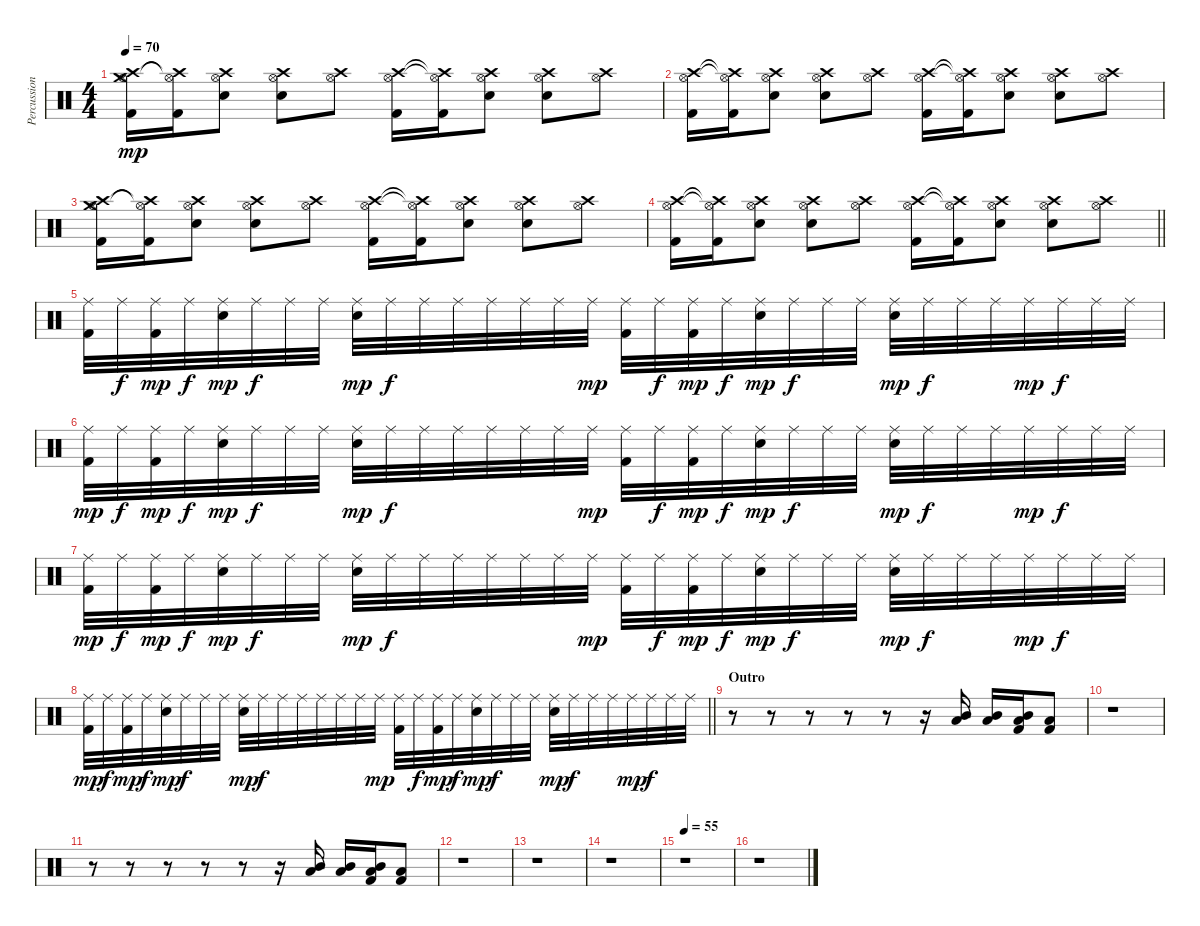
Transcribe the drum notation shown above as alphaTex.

\track ("Percussion" "Percussion") {instrument percussion}
\staff {score}
\articulation defaults
\ts (4 4)
\tempo 70
\clef neutral
\ks c
("Crash medium (hit)" "Crash high (hit)" "Hi-Hat (open)" "Kick (hit) 2").16{dy mp} ("Crash high (hit)"{t} "Hi-Hat (open)"{t} "Kick (hit) 2").16 ("Crash high (hit)" "Hi-Hat (open)" "Electric Snare (hit)").8 ("Crash high (hit)" "Hi-Hat (open)" "Electric Snare (hit)").8 ("Crash high (hit)" "Hi-Hat (open)").8 ("Crash high (hit)" "Hi-Hat (open)" "Kick (hit) 2").16 ("Crash high (hit)"{t} "Hi-Hat (open)"{t} "Kick (hit) 2").16 ("Crash high (hit)" "Hi-Hat (open)" "Electric Snare (hit)").8 ("Crash high (hit)" "Hi-Hat (open)" "Electric Snare (hit)").8 ("Crash high (hit)" "Hi-Hat (open)").8 |
("Crash high (hit)" "Hi-Hat (open)" "Kick (hit) 2").16 ("Crash high (hit)"{t} "Hi-Hat (open)"{t} "Kick (hit) 2").16 ("Crash high (hit)" "Hi-Hat (open)" "Electric Snare (hit)").8 ("Crash high (hit)" "Hi-Hat (open)" "Electric Snare (hit)").8 ("Crash high (hit)" "Hi-Hat (open)").8 ("Crash high (hit)" "Hi-Hat (open)" "Kick (hit) 2").16 ("Crash high (hit)"{t} "Hi-Hat (open)"{t} "Kick (hit) 2").16 ("Crash high (hit)" "Hi-Hat (open)" "Electric Snare (hit)").8 ("Crash high (hit)" "Hi-Hat (open)" "Electric Snare (hit)").8 ("Crash high (hit)" "Hi-Hat (open)").8 |
("Crash medium (hit)" "Crash high (hit)" "Hi-Hat (open)" "Kick (hit) 2").16 ("Crash high (hit)"{t} "Hi-Hat (open)"{t} "Kick (hit) 2").16 ("Crash high (hit)" "Hi-Hat (open)" "Electric Snare (hit)").8 ("Crash high (hit)" "Hi-Hat (open)" "Electric Snare (hit)").8 ("Crash high (hit)" "Hi-Hat (open)").8 ("Crash high (hit)" "Hi-Hat (open)" "Kick (hit) 2").16 ("Crash high (hit)"{t} "Hi-Hat (open)"{t} "Kick (hit) 2").16 ("Crash high (hit)" "Hi-Hat (open)" "Electric Snare (hit)").8 ("Crash high (hit)" "Hi-Hat (open)" "Electric Snare (hit)").8 ("Crash high (hit)" "Hi-Hat (open)").8 |
\barLineRight lightlight
("Crash high (hit)" "Hi-Hat (open)" "Kick (hit) 2").16 ("Crash high (hit)"{t} "Hi-Hat (open)"{t} "Kick (hit) 2").16 ("Crash high (hit)" "Hi-Hat (open)" "Electric Snare (hit)").8 ("Crash high (hit)" "Hi-Hat (open)" "Electric Snare (hit)").8 ("Crash high (hit)" "Hi-Hat (open)").8 ("Crash high (hit)" "Hi-Hat (open)" "Kick (hit) 2").16 ("Crash high (hit)"{t} "Hi-Hat (open)"{t} "Kick (hit) 2").16 ("Crash high (hit)" "Hi-Hat (open)" "Electric Snare (hit)").8 ("Crash high (hit)" "Hi-Hat (open)" "Electric Snare (hit)").8 ("Crash high (hit)" "Hi-Hat (open)").8 |
("Ride (middle)" "Kick (hit) 2").32 "Ride (middle)".32{dy f} ("Ride (middle)" "Kick (hit) 2").32{dy mp} "Ride (middle)".32{dy f} ("Ride (middle)" "Electric Snare (hit)").32{dy mp} "Ride (middle)".32{dy f} "Ride (middle)".32 "Ride (middle)".32 ("Ride (middle)" "Electric Snare (hit)").32{dy mp} "Ride (middle)".32{dy f} "Ride (middle)".32 "Ride (middle)".32 "Ride (middle)".32 "Ride (middle)".32 "Ride (middle)".32 "Ride (middle)".32{dy mp} ("Ride (middle)" "Kick (hit) 2").32 "Ride (middle)".32{dy f} ("Ride (middle)" "Kick (hit) 2").32{dy mp} "Ride (middle)".32{dy f} ("Ride (middle)" "Electric Snare (hit)").32{dy mp} "Ride (middle)".32{dy f} "Ride (middle)".32 "Ride (middle)".32 ("Ride (middle)" "Electric Snare (hit)").32{dy mp} "Ride (middle)".32{dy f} "Ride (middle)".32 "Ride (middle)".32 "Ride (middle)".32{dy mp} "Ride (middle)".32{dy f} "Ride (middle)".32 "Ride (middle)".32 |
("Ride (middle)" "Kick (hit) 2").32{dy mp} "Ride (middle)".32{dy f} ("Ride (middle)" "Kick (hit) 2").32{dy mp} "Ride (middle)".32{dy f} ("Ride (middle)" "Electric Snare (hit)").32{dy mp} "Ride (middle)".32{dy f} "Ride (middle)".32 "Ride (middle)".32 ("Ride (middle)" "Electric Snare (hit)").32{dy mp} "Ride (middle)".32{dy f} "Ride (middle)".32 "Ride (middle)".32 "Ride (middle)".32 "Ride (middle)".32 "Ride (middle)".32 "Ride (middle)".32{dy mp} ("Ride (middle)" "Kick (hit) 2").32 "Ride (middle)".32{dy f} ("Ride (middle)" "Kick (hit) 2").32{dy mp} "Ride (middle)".32{dy f} ("Ride (middle)" "Electric Snare (hit)").32{dy mp} "Ride (middle)".32{dy f} "Ride (middle)".32 "Ride (middle)".32 ("Ride (middle)" "Electric Snare (hit)").32{dy mp} "Ride (middle)".32{dy f} "Ride (middle)".32 "Ride (middle)".32 "Ride (middle)".32{dy mp} "Ride (middle)".32{dy f} "Ride (middle)".32 "Ride (middle)".32 |
("Ride (middle)" "Kick (hit) 2").32{dy mp} "Ride (middle)".32{dy f} ("Ride (middle)" "Kick (hit) 2").32{dy mp} "Ride (middle)".32{dy f} ("Ride (middle)" "Electric Snare (hit)").32{dy mp} "Ride (middle)".32{dy f} "Ride (middle)".32 "Ride (middle)".32 ("Ride (middle)" "Electric Snare (hit)").32{dy mp} "Ride (middle)".32{dy f} "Ride (middle)".32 "Ride (middle)".32 "Ride (middle)".32 "Ride (middle)".32 "Ride (middle)".32 "Ride (middle)".32{dy mp} ("Ride (middle)" "Kick (hit) 2").32 "Ride (middle)".32{dy f} ("Ride (middle)" "Kick (hit) 2").32{dy mp} "Ride (middle)".32{dy f} ("Ride (middle)" "Electric Snare (hit)").32{dy mp} "Ride (middle)".32{dy f} "Ride (middle)".32 "Ride (middle)".32 ("Ride (middle)" "Electric Snare (hit)").32{dy mp} "Ride (middle)".32{dy f} "Ride (middle)".32 "Ride (middle)".32 "Ride (middle)".32{dy mp} "Ride (middle)".32{dy f} "Ride (middle)".32 "Ride (middle)".32 |
\barLineRight lightlight
("Ride (middle)" "Kick (hit) 2").32{dy mp} "Ride (middle)".32{dy f} ("Ride (middle)" "Kick (hit) 2").32{dy mp} "Ride (middle)".32{dy f} ("Ride (middle)" "Electric Snare (hit)").32{dy mp} "Ride (middle)".32{dy f} "Ride (middle)".32 "Ride (middle)".32 ("Ride (middle)" "Electric Snare (hit)").32{dy mp} "Ride (middle)".32{dy f} "Ride (middle)".32 "Ride (middle)".32 "Ride (middle)".32 "Ride (middle)".32 "Ride (middle)".32 "Ride (middle)".32{dy mp} ("Ride (middle)" "Kick (hit) 2").32 "Ride (middle)".32{dy f} ("Ride (middle)" "Kick (hit) 2").32{dy mp} "Ride (middle)".32{dy f} ("Ride (middle)" "Electric Snare (hit)").32{dy mp} "Ride (middle)".32{dy f} "Ride (middle)".32 "Ride (middle)".32 ("Ride (middle)" "Electric Snare (hit)").32{dy mp} "Ride (middle)".32{dy f} "Ride (middle)".32 "Ride (middle)".32 "Ride (middle)".32{dy mp} "Ride (middle)".32{dy f} "Ride (middle)".32 "Ride (middle)".32 |
\section ("" "Outro")
r.8 r.8 r.8 r.8 r.8 r.16 ("Mid Tom (hit)" "Low Tom (hit)").16 ("Mid Tom (hit)" "Low Tom (hit)").16 ("Mid Tom (hit)" "Low Tom (hit)" "Kick (hit) 2").16 ("Low Tom (hit)" "Kick (hit) 2").8 |
r.1 |
r.8 r.8 r.8 r.8 r.8 r.16 ("Mid Tom (hit)" "Low Tom (hit)").16 ("Mid Tom (hit)" "Low Tom (hit)").16 ("Mid Tom (hit)" "Low Tom (hit)" "Kick (hit) 2").16 ("Low Tom (hit)" "Kick (hit) 2").8 |
r.1 |
r.1 |
r.1 |
\tempo 55
r.1 |
r.1
